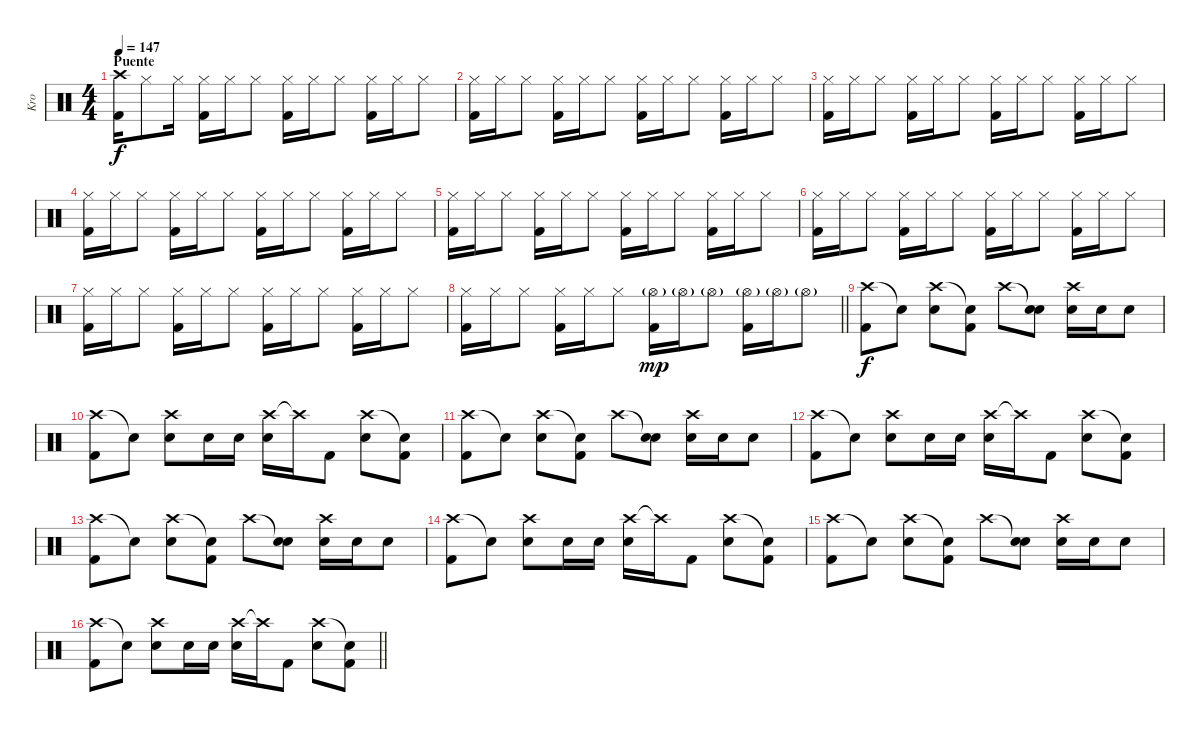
\track ("Kro" "Kro") {instrument percussion}
\staff {score}
\articulation defaults
\ts (4 4)
\section ("" "Puente")
\tempo 147
\clef neutral
\ks c
("Crash high (hit)" "Kick (hit) 2").16{dy f} "Hi-Hat (closed)".8 "Hi-Hat (closed)".16 ("Hi-Hat (closed)" "Kick (hit) 2").16 "Hi-Hat (closed)".16 "Hi-Hat (closed)".8 ("Hi-Hat (closed)" "Kick (hit) 2").16 "Hi-Hat (closed)".16 "Hi-Hat (closed)".8 ("Hi-Hat (closed)" "Kick (hit) 2").16 "Hi-Hat (closed)".16 "Hi-Hat (closed)".8 |
("Hi-Hat (closed)" "Kick (hit) 2").16 "Hi-Hat (closed)".16 "Hi-Hat (closed)".8 ("Hi-Hat (closed)" "Kick (hit) 2").16 "Hi-Hat (closed)".16 "Hi-Hat (closed)".8 ("Hi-Hat (closed)" "Kick (hit) 2").16 "Hi-Hat (closed)".16 "Hi-Hat (closed)".8 ("Hi-Hat (closed)" "Kick (hit) 2").16 "Hi-Hat (closed)".16 "Hi-Hat (closed)".8 |
("Hi-Hat (closed)" "Kick (hit) 2").16 "Hi-Hat (closed)".16 "Hi-Hat (closed)".8 ("Hi-Hat (closed)" "Kick (hit) 2").16 "Hi-Hat (closed)".16 "Hi-Hat (closed)".8 ("Hi-Hat (closed)" "Kick (hit) 2").16 "Hi-Hat (closed)".16 "Hi-Hat (closed)".8 ("Hi-Hat (closed)" "Kick (hit) 2").16 "Hi-Hat (closed)".16 "Hi-Hat (closed)".8 |
("Hi-Hat (closed)" "Kick (hit) 2").16 "Hi-Hat (closed)".16 "Hi-Hat (closed)".8 ("Hi-Hat (closed)" "Kick (hit) 2").16 "Hi-Hat (closed)".16 "Hi-Hat (closed)".8 ("Hi-Hat (closed)" "Kick (hit) 2").16 "Hi-Hat (closed)".16 "Hi-Hat (closed)".8 ("Hi-Hat (closed)" "Kick (hit) 2").16 "Hi-Hat (closed)".16 "Hi-Hat (closed)".8 |
("Hi-Hat (closed)" "Kick (hit) 2").16 "Hi-Hat (closed)".16 "Hi-Hat (closed)".8 ("Hi-Hat (closed)" "Kick (hit) 2").16 "Hi-Hat (closed)".16 "Hi-Hat (closed)".8 ("Hi-Hat (closed)" "Kick (hit) 2").16 "Hi-Hat (closed)".16 "Hi-Hat (closed)".8 ("Hi-Hat (closed)" "Kick (hit) 2").16 "Hi-Hat (closed)".16 "Hi-Hat (closed)".8 |
("Hi-Hat (closed)" "Kick (hit) 2").16 "Hi-Hat (closed)".16 "Hi-Hat (closed)".8 ("Hi-Hat (closed)" "Kick (hit) 2").16 "Hi-Hat (closed)".16 "Hi-Hat (closed)".8 ("Hi-Hat (closed)" "Kick (hit) 2").16 "Hi-Hat (closed)".16 "Hi-Hat (closed)".8 ("Hi-Hat (closed)" "Kick (hit) 2").16 "Hi-Hat (closed)".16 "Hi-Hat (closed)".8 |
("Hi-Hat (closed)" "Kick (hit) 2").16 "Hi-Hat (closed)".16 "Hi-Hat (closed)".8 ("Hi-Hat (closed)" "Kick (hit) 2").16 "Hi-Hat (closed)".16 "Hi-Hat (closed)".8 ("Hi-Hat (closed)" "Kick (hit) 2").16 "Hi-Hat (closed)".16 "Hi-Hat (closed)".8 ("Hi-Hat (closed)" "Kick (hit) 2").16 "Hi-Hat (closed)".16 "Hi-Hat (closed)".8 |
\barLineRight lightlight
("Hi-Hat (closed)" "Kick (hit) 2").16 "Hi-Hat (closed)".16 "Hi-Hat (closed)".8 ("Hi-Hat (closed)" "Kick (hit) 2").16 "Hi-Hat (closed)".16 "Hi-Hat (closed)".8 ("Hi-Hat (open)"{g} "Kick (hit) 2").16{dy mp} "Hi-Hat (open)"{g}.16 "Hi-Hat (open)"{g}.8 ("Hi-Hat (open)"{g} "Kick (hit) 2").16 "Hi-Hat (open)"{g}.16 "Hi-Hat (open)"{g}.8 |
("Crash high (hit)" "Kick (hit) 2").8{dy f} "Snare (hit)"{t}.8 ("Crash high (hit)" "Electric Snare (hit)").8 ("Snare (hit)"{t} "Kick (hit) 2").8 "Crash high (hit)".8 ("Snare (hit)"{t} "Electric Snare (hit)").8 ("Crash high (hit)" "Electric Snare (hit)").16 "Electric Snare (hit)".16 "Electric Snare (hit)".8 |
("Crash high (hit)" "Kick (hit) 2").8 "Snare (hit)"{t}.8 ("Crash high (hit)" "Electric Snare (hit)").8 "Electric Snare (hit)".16 "Electric Snare (hit)".16 ("Crash high (hit)" "Electric Snare (hit)").16 "Crash high (hit)"{t}.16 "Kick (hit) 2".8 ("Crash high (hit)" "Electric Snare (hit)").8 ("Snare (hit)"{t} "Kick (hit) 2").8 |
("Crash high (hit)" "Kick (hit) 2").8 "Snare (hit)"{t}.8 ("Crash high (hit)" "Electric Snare (hit)").8 ("Snare (hit)"{t} "Kick (hit) 2").8 "Crash high (hit)".8 ("Snare (hit)"{t} "Electric Snare (hit)").8 ("Crash high (hit)" "Electric Snare (hit)").16 "Electric Snare (hit)".16 "Electric Snare (hit)".8 |
("Crash high (hit)" "Kick (hit) 2").8 "Snare (hit)"{t}.8 ("Crash high (hit)" "Electric Snare (hit)").8 "Electric Snare (hit)".16 "Electric Snare (hit)".16 ("Crash high (hit)" "Electric Snare (hit)").16 "Crash high (hit)"{t}.16 "Kick (hit) 2".8 ("Crash high (hit)" "Electric Snare (hit)").8 ("Snare (hit)"{t} "Kick (hit) 2").8 |
("Crash high (hit)" "Kick (hit) 2").8 "Snare (hit)"{t}.8 ("Crash high (hit)" "Electric Snare (hit)").8 ("Snare (hit)"{t} "Kick (hit) 2").8 "Crash high (hit)".8 ("Snare (hit)"{t} "Electric Snare (hit)").8 ("Crash high (hit)" "Electric Snare (hit)").16 "Electric Snare (hit)".16 "Electric Snare (hit)".8 |
("Crash high (hit)" "Kick (hit) 2").8 "Snare (hit)"{t}.8 ("Crash high (hit)" "Electric Snare (hit)").8 "Electric Snare (hit)".16 "Electric Snare (hit)".16 ("Crash high (hit)" "Electric Snare (hit)").16 "Crash high (hit)"{t}.16 "Kick (hit) 2".8 ("Crash high (hit)" "Electric Snare (hit)").8 ("Snare (hit)"{t} "Kick (hit) 2").8 |
("Crash high (hit)" "Kick (hit) 2").8 "Snare (hit)"{t}.8 ("Crash high (hit)" "Electric Snare (hit)").8 ("Snare (hit)"{t} "Kick (hit) 2").8 "Crash high (hit)".8 ("Snare (hit)"{t} "Electric Snare (hit)").8 ("Crash high (hit)" "Electric Snare (hit)").16 "Electric Snare (hit)".16 "Electric Snare (hit)".8 |
\barLineRight lightlight
("Crash high (hit)" "Kick (hit) 2").8 "Snare (hit)"{t}.8 ("Crash high (hit)" "Electric Snare (hit)").8 "Electric Snare (hit)".16 "Electric Snare (hit)".16 ("Crash high (hit)" "Electric Snare (hit)").16 "Crash high (hit)"{t}.16 "Kick (hit) 2".8 ("Crash high (hit)" "Electric Snare (hit)").8 ("Snare (hit)"{t} "Kick (hit) 2").8
